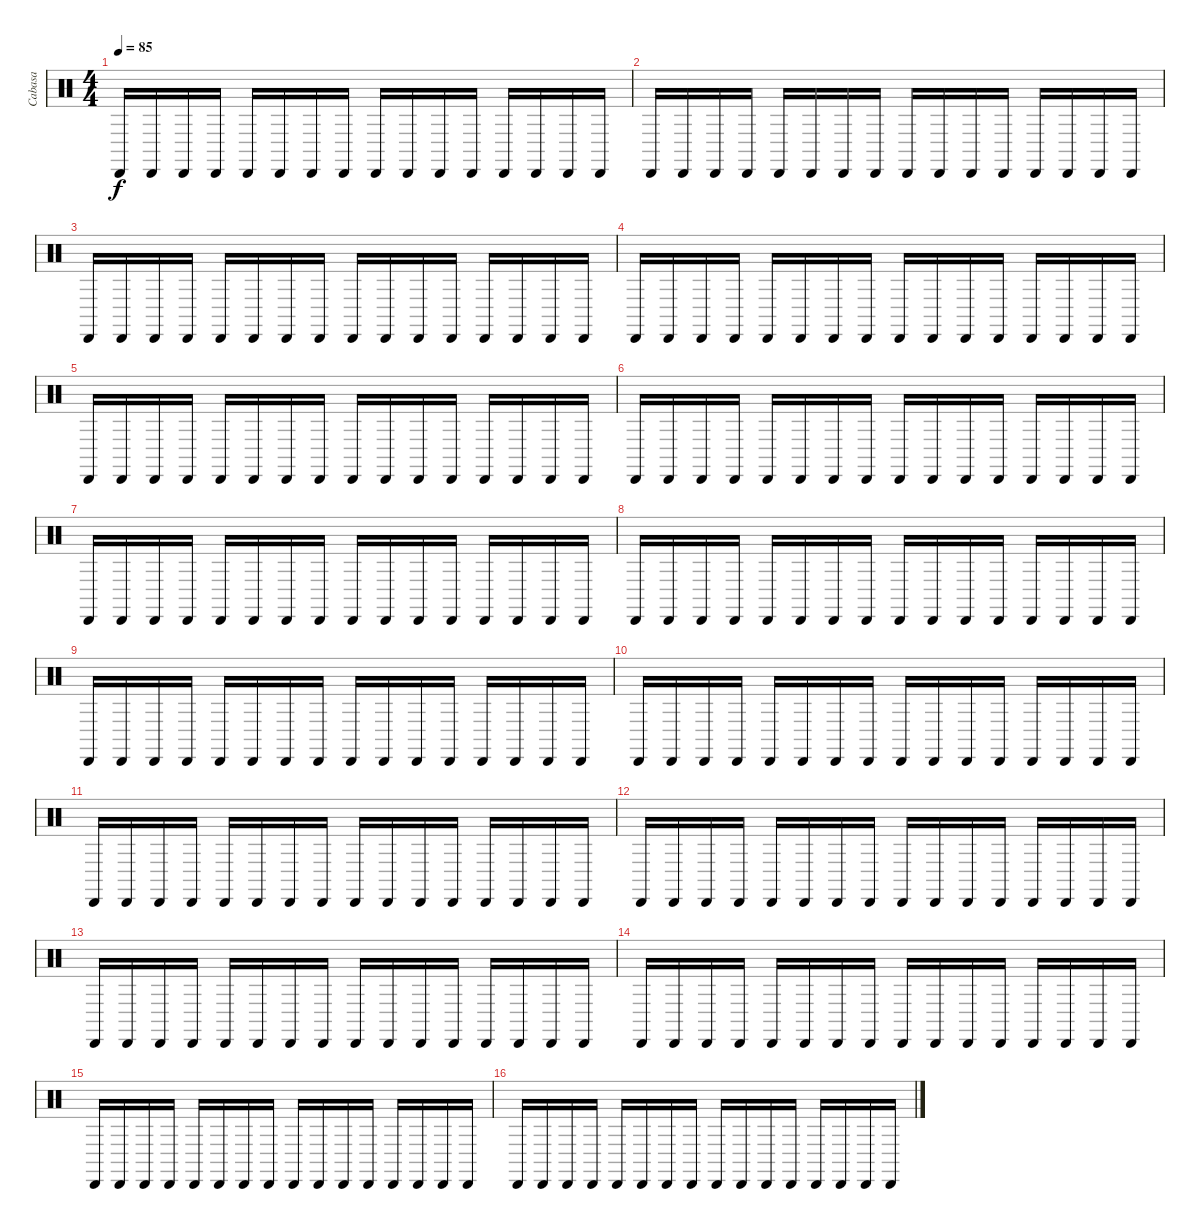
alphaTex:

\track ("Cabasa" "Cabasa") {instrument percussion}
\staff {score}
\articulation defaults
\ts (4 4)
\tempo 85
\clef neutral
\ks c "Cabasa (hit)".16{dy f} "Cabasa (hit)".16 "Cabasa (hit)".16 "Cabasa (hit)".16 "Cabasa (hit)".16 "Cabasa (hit)".16 "Cabasa (hit)".16 "Cabasa (hit)".16 "Cabasa (hit)".16 "Cabasa (hit)".16 "Cabasa (hit)".16 "Cabasa (hit)".16 "Cabasa (hit)".16 "Cabasa (hit)".16 "Cabasa (hit)".16 "Cabasa (hit)".16
|
"Cabasa (hit)".16 "Cabasa (hit)".16 "Cabasa (hit)".16 "Cabasa (hit)".16 "Cabasa (hit)".16 "Cabasa (hit)".16 "Cabasa (hit)".16 "Cabasa (hit)".16 "Cabasa (hit)".16 "Cabasa (hit)".16 "Cabasa (hit)".16 "Cabasa (hit)".16 "Cabasa (hit)".16 "Cabasa (hit)".16 "Cabasa (hit)".16 "Cabasa (hit)".16 |
"Cabasa (hit)".16 "Cabasa (hit)".16 "Cabasa (hit)".16 "Cabasa (hit)".16 "Cabasa (hit)".16 "Cabasa (hit)".16 "Cabasa (hit)".16 "Cabasa (hit)".16 "Cabasa (hit)".16 "Cabasa (hit)".16 "Cabasa (hit)".16 "Cabasa (hit)".16 "Cabasa (hit)".16 "Cabasa (hit)".16 "Cabasa (hit)".16 "Cabasa (hit)".16 |
"Cabasa (hit)".16 "Cabasa (hit)".16 "Cabasa (hit)".16 "Cabasa (hit)".16 "Cabasa (hit)".16 "Cabasa (hit)".16 "Cabasa (hit)".16 "Cabasa (hit)".16 "Cabasa (hit)".16 "Cabasa (hit)".16 "Cabasa (hit)".16 "Cabasa (hit)".16 "Cabasa (hit)".16 "Cabasa (hit)".16 "Cabasa (hit)".16 "Cabasa (hit)".16 |
"Cabasa (hit)".16 "Cabasa (hit)".16 "Cabasa (hit)".16 "Cabasa (hit)".16 "Cabasa (hit)".16 "Cabasa (hit)".16 "Cabasa (hit)".16 "Cabasa (hit)".16 "Cabasa (hit)".16 "Cabasa (hit)".16 "Cabasa (hit)".16 "Cabasa (hit)".16 "Cabasa (hit)".16 "Cabasa (hit)".16 "Cabasa (hit)".16 "Cabasa (hit)".16 |
"Cabasa (hit)".16 "Cabasa (hit)".16 "Cabasa (hit)".16 "Cabasa (hit)".16 "Cabasa (hit)".16 "Cabasa (hit)".16 "Cabasa (hit)".16 "Cabasa (hit)".16 "Cabasa (hit)".16 "Cabasa (hit)".16 "Cabasa (hit)".16 "Cabasa (hit)".16 "Cabasa (hit)".16 "Cabasa (hit)".16 "Cabasa (hit)".16 "Cabasa (hit)".16 |
"Cabasa (hit)".16 "Cabasa (hit)".16 "Cabasa (hit)".16 "Cabasa (hit)".16 "Cabasa (hit)".16 "Cabasa (hit)".16 "Cabasa (hit)".16 "Cabasa (hit)".16 "Cabasa (hit)".16 "Cabasa (hit)".16 "Cabasa (hit)".16 "Cabasa (hit)".16 "Cabasa (hit)".16 "Cabasa (hit)".16 "Cabasa (hit)".16 "Cabasa (hit)".16 |
"Cabasa (hit)".16 "Cabasa (hit)".16 "Cabasa (hit)".16 "Cabasa (hit)".16 "Cabasa (hit)".16 "Cabasa (hit)".16 "Cabasa (hit)".16 "Cabasa (hit)".16 "Cabasa (hit)".16 "Cabasa (hit)".16 "Cabasa (hit)".16 "Cabasa (hit)".16 "Cabasa (hit)".16 "Cabasa (hit)".16 "Cabasa (hit)".16 "Cabasa (hit)".16 |
"Cabasa (hit)".16 "Cabasa (hit)".16 "Cabasa (hit)".16 "Cabasa (hit)".16 "Cabasa (hit)".16 "Cabasa (hit)".16 "Cabasa (hit)".16 "Cabasa (hit)".16 "Cabasa (hit)".16 "Cabasa (hit)".16 "Cabasa (hit)".16 "Cabasa (hit)".16 "Cabasa (hit)".16 "Cabasa (hit)".16 "Cabasa (hit)".16 "Cabasa (hit)".16 |
"Cabasa (hit)".16 "Cabasa (hit)".16 "Cabasa (hit)".16 "Cabasa (hit)".16 "Cabasa (hit)".16 "Cabasa (hit)".16 "Cabasa (hit)".16 "Cabasa (hit)".16 "Cabasa (hit)".16 "Cabasa (hit)".16 "Cabasa (hit)".16 "Cabasa (hit)".16 "Cabasa (hit)".16 "Cabasa (hit)".16 "Cabasa (hit)".16 "Cabasa (hit)".16 |
"Cabasa (hit)".16 "Cabasa (hit)".16 "Cabasa (hit)".16 "Cabasa (hit)".16 "Cabasa (hit)".16 "Cabasa (hit)".16 "Cabasa (hit)".16 "Cabasa (hit)".16 "Cabasa (hit)".16 "Cabasa (hit)".16 "Cabasa (hit)".16 "Cabasa (hit)".16 "Cabasa (hit)".16 "Cabasa (hit)".16 "Cabasa (hit)".16 "Cabasa (hit)".16 |
"Cabasa (hit)".16 "Cabasa (hit)".16 "Cabasa (hit)".16 "Cabasa (hit)".16 "Cabasa (hit)".16 "Cabasa (hit)".16 "Cabasa (hit)".16 "Cabasa (hit)".16 "Cabasa (hit)".16 "Cabasa (hit)".16 "Cabasa (hit)".16 "Cabasa (hit)".16 "Cabasa (hit)".16 "Cabasa (hit)".16 "Cabasa (hit)".16 "Cabasa (hit)".16 |
"Cabasa (hit)".16 "Cabasa (hit)".16 "Cabasa (hit)".16 "Cabasa (hit)".16 "Cabasa (hit)".16 "Cabasa (hit)".16 "Cabasa (hit)".16 "Cabasa (hit)".16 "Cabasa (hit)".16 "Cabasa (hit)".16 "Cabasa (hit)".16 "Cabasa (hit)".16 "Cabasa (hit)".16 "Cabasa (hit)".16 "Cabasa (hit)".16 "Cabasa (hit)".16 |
"Cabasa (hit)".16 "Cabasa (hit)".16 "Cabasa (hit)".16 "Cabasa (hit)".16 "Cabasa (hit)".16 "Cabasa (hit)".16 "Cabasa (hit)".16 "Cabasa (hit)".16 "Cabasa (hit)".16 "Cabasa (hit)".16 "Cabasa (hit)".16 "Cabasa (hit)".16 "Cabasa (hit)".16 "Cabasa (hit)".16 "Cabasa (hit)".16 "Cabasa (hit)".16 |
"Cabasa (hit)".16 "Cabasa (hit)".16 "Cabasa (hit)".16 "Cabasa (hit)".16 "Cabasa (hit)".16 "Cabasa (hit)".16 "Cabasa (hit)".16 "Cabasa (hit)".16 "Cabasa (hit)".16 "Cabasa (hit)".16 "Cabasa (hit)".16 "Cabasa (hit)".16 "Cabasa (hit)".16 "Cabasa (hit)".16 "Cabasa (hit)".16 "Cabasa (hit)".16 |
"Cabasa (hit)".16 "Cabasa (hit)".16 "Cabasa (hit)".16 "Cabasa (hit)".16 "Cabasa (hit)".16 "Cabasa (hit)".16 "Cabasa (hit)".16 "Cabasa (hit)".16 "Cabasa (hit)".16 "Cabasa (hit)".16 "Cabasa (hit)".16 "Cabasa (hit)".16 "Cabasa (hit)".16 "Cabasa (hit)".16 "Cabasa (hit)".16 "Cabasa (hit)".16
